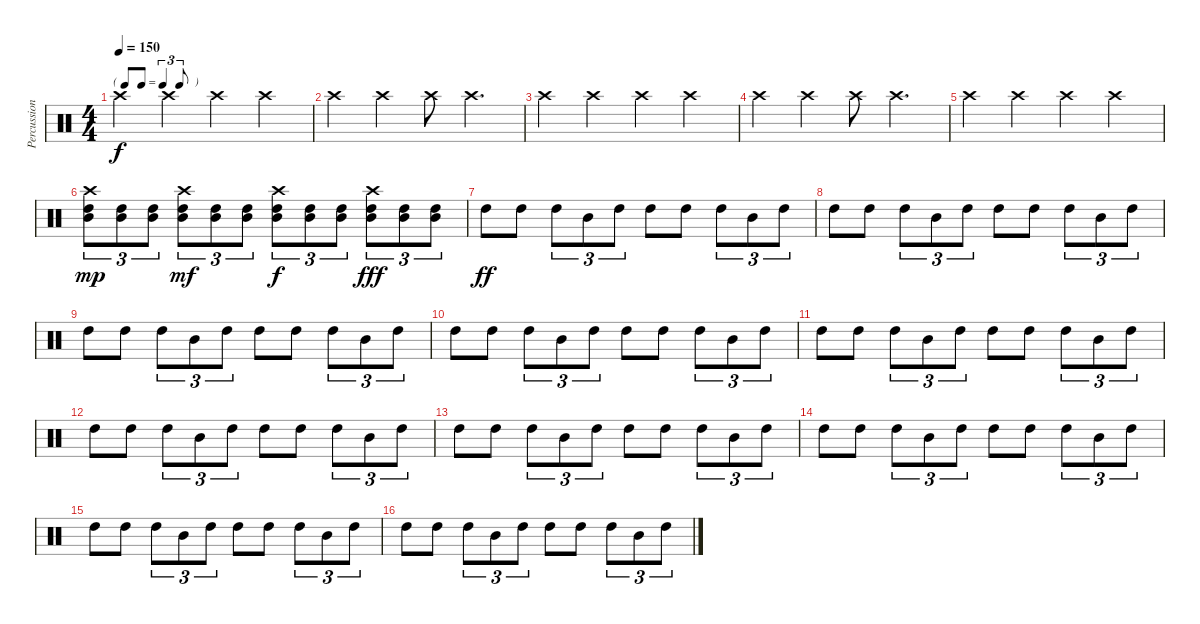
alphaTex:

\track ("Percussion" "Percussion") {instrument percussion}
\staff {score}
\articulation defaults
\ts (4 4)
\tf triplet8th
\tempo 150
\clef neutral
\ks c "Crash high (hit)".4{dy f} "Crash high (hit)".4 "Crash high (hit)".4 "Crash high (hit)".4
|
"Crash high (hit)".4 "Crash high (hit)".4 "Crash high (hit)".8 "Crash high (hit)".4{d} |
"Crash high (hit)".4 "Crash high (hit)".4 "Crash high (hit)".4 "Crash high (hit)".4 |
"Crash high (hit)".4 "Crash high (hit)".4 "Crash high (hit)".8 "Crash high (hit)".4{d} |
"Crash high (hit)".4 "Crash high (hit)".4 "Crash high (hit)".4 "Crash high (hit)".4 |
("High Tom (hit)" "Mid Tom (hit)" "Crash high (hit)").8{tu (3 2) dy mp} ("High Tom (hit)" "Mid Tom (hit)").8{tu (3 2)} ("High Tom (hit)" "Mid Tom (hit)").8{tu (3 2)} ("High Tom (hit)" "Mid Tom (hit)" "Crash high (hit)").8{tu (3 2) dy mf} ("High Tom (hit)" "Mid Tom (hit)").8{tu (3 2)} ("High Tom (hit)" "Mid Tom (hit)").8{tu (3 2)} ("High Tom (hit)" "Mid Tom (hit)" "Crash high (hit)").8{tu (3 2) dy f} ("High Tom (hit)" "Mid Tom (hit)").8{tu (3 2)} ("High Tom (hit)" "Mid Tom (hit)").8{tu (3 2)} ("High Tom (hit)" "Mid Tom (hit)" "Crash high (hit)").8{tu (3 2) dy fff} ("High Tom (hit)" "Mid Tom (hit)").8{tu (3 2)} ("High Tom (hit)" "Mid Tom (hit)").8{tu (3 2)} |
"High Tom (hit)".8{dy ff} "High Tom (hit)".8 "High Tom (hit)".8{tu (3 2)} "Mid Tom (hit)".8{tu (3 2)} "High Tom (hit)".8{tu (3 2)} "High Tom (hit)".8 "High Tom (hit)".8 "High Tom (hit)".8{tu (3 2)} "Mid Tom (hit)".8{tu (3 2)} "High Tom (hit)".8{tu (3 2)} |
"High Tom (hit)".8 "High Tom (hit)".8 "High Tom (hit)".8{tu (3 2)} "Mid Tom (hit)".8{tu (3 2)} "High Tom (hit)".8{tu (3 2)} "High Tom (hit)".8 "High Tom (hit)".8 "High Tom (hit)".8{tu (3 2)} "Mid Tom (hit)".8{tu (3 2)} "High Tom (hit)".8{tu (3 2)} |
"High Tom (hit)".8 "High Tom (hit)".8 "High Tom (hit)".8{tu (3 2)} "Mid Tom (hit)".8{tu (3 2)} "High Tom (hit)".8{tu (3 2)} "High Tom (hit)".8 "High Tom (hit)".8 "High Tom (hit)".8{tu (3 2)} "Mid Tom (hit)".8{tu (3 2)} "High Tom (hit)".8{tu (3 2)} |
"High Tom (hit)".8 "High Tom (hit)".8 "High Tom (hit)".8{tu (3 2)} "Mid Tom (hit)".8{tu (3 2)} "High Tom (hit)".8{tu (3 2)} "High Tom (hit)".8 "High Tom (hit)".8 "High Tom (hit)".8{tu (3 2)} "Mid Tom (hit)".8{tu (3 2)} "High Tom (hit)".8{tu (3 2)} |
"High Tom (hit)".8 "High Tom (hit)".8 "High Tom (hit)".8{tu (3 2)} "Mid Tom (hit)".8{tu (3 2)} "High Tom (hit)".8{tu (3 2)} "High Tom (hit)".8 "High Tom (hit)".8 "High Tom (hit)".8{tu (3 2)} "Mid Tom (hit)".8{tu (3 2)} "High Tom (hit)".8{tu (3 2)} |
"High Tom (hit)".8 "High Tom (hit)".8 "High Tom (hit)".8{tu (3 2)} "Mid Tom (hit)".8{tu (3 2)} "High Tom (hit)".8{tu (3 2)} "High Tom (hit)".8 "High Tom (hit)".8 "High Tom (hit)".8{tu (3 2)} "Mid Tom (hit)".8{tu (3 2)} "High Tom (hit)".8{tu (3 2)} |
"High Tom (hit)".8 "High Tom (hit)".8 "High Tom (hit)".8{tu (3 2)} "Mid Tom (hit)".8{tu (3 2)} "High Tom (hit)".8{tu (3 2)} "High Tom (hit)".8 "High Tom (hit)".8 "High Tom (hit)".8{tu (3 2)} "Mid Tom (hit)".8{tu (3 2)} "High Tom (hit)".8{tu (3 2)} |
"High Tom (hit)".8 "High Tom (hit)".8 "High Tom (hit)".8{tu (3 2)} "Mid Tom (hit)".8{tu (3 2)} "High Tom (hit)".8{tu (3 2)} "High Tom (hit)".8 "High Tom (hit)".8 "High Tom (hit)".8{tu (3 2)} "Mid Tom (hit)".8{tu (3 2)} "High Tom (hit)".8{tu (3 2)} |
"High Tom (hit)".8 "High Tom (hit)".8 "High Tom (hit)".8{tu (3 2)} "Mid Tom (hit)".8{tu (3 2)} "High Tom (hit)".8{tu (3 2)} "High Tom (hit)".8 "High Tom (hit)".8 "High Tom (hit)".8{tu (3 2)} "Mid Tom (hit)".8{tu (3 2)} "High Tom (hit)".8{tu (3 2)} |
"High Tom (hit)".8 "High Tom (hit)".8 "High Tom (hit)".8{tu (3 2)} "Mid Tom (hit)".8{tu (3 2)} "High Tom (hit)".8{tu (3 2)} "High Tom (hit)".8 "High Tom (hit)".8 "High Tom (hit)".8{tu (3 2)} "Mid Tom (hit)".8{tu (3 2)} "High Tom (hit)".8{tu (3 2)}
